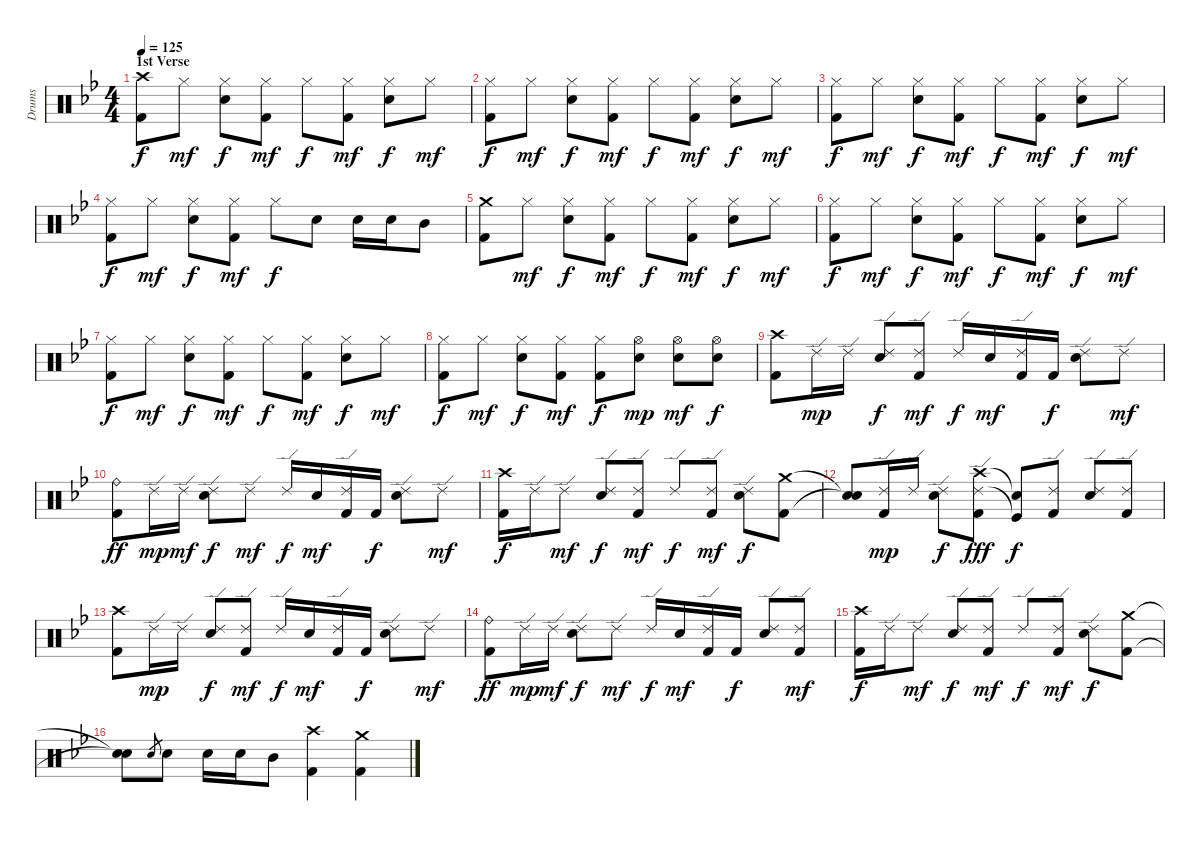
\track ("Drums" "Drums") {instrument percussion}
\staff {score}
\articulation defaults
\ts (4 4)
\section ("" "1st Verse")
\tempo 125
\clef neutral
\ks gminor
("Crash high (hit)" "Kick (hit) 2").8{dy f} "Hi-Hat (closed)".8{dy mf} ("Hi-Hat (closed)" "Snare (hit) 2").8{dy f} ("Hi-Hat (closed)" "Kick (hit) 2").8{dy mf} "Hi-Hat (closed)".8{dy f} ("Hi-Hat (closed)" "Kick (hit) 2").8{dy mf} ("Hi-Hat (closed)" "Snare (hit) 2").8{dy f} "Hi-Hat (closed)".8{dy mf} |
("Hi-Hat (closed)" "Kick (hit) 2").8{dy f} "Hi-Hat (closed)".8{dy mf} ("Hi-Hat (closed)" "Snare (hit) 2").8{dy f} ("Hi-Hat (closed)" "Kick (hit) 2").8{dy mf} "Hi-Hat (closed)".8{dy f} ("Hi-Hat (closed)" "Kick (hit) 2").8{dy mf} ("Hi-Hat (closed)" "Snare (hit) 2").8{dy f} "Hi-Hat (closed)".8{dy mf} |
("Hi-Hat (closed)" "Kick (hit) 2").8{dy f} "Hi-Hat (closed)".8{dy mf} ("Hi-Hat (closed)" "Snare (hit) 2").8{dy f} ("Hi-Hat (closed)" "Kick (hit) 2").8{dy mf} "Hi-Hat (closed)".8{dy f} ("Hi-Hat (closed)" "Kick (hit) 2").8{dy mf} ("Hi-Hat (closed)" "Snare (hit) 2").8{dy f} "Hi-Hat (closed)".8{dy mf} |
("Hi-Hat (closed)" "Kick (hit) 2").8{dy f} "Hi-Hat (closed)".8{dy mf} ("Hi-Hat (closed)" "Snare (hit) 2").8{dy f} ("Hi-Hat (closed)" "Kick (hit) 2").8{dy mf} "Hi-Hat (closed)".8{dy f} "Snare (hit) 2".8 "Snare (hit) 2".16 "Snare (hit) 2".16 "Mid Tom (hit)".8 |
("Crash medium (hit)" "Kick (hit) 2").8 "Hi-Hat (closed)".8{dy mf} ("Hi-Hat (closed)" "Snare (hit) 2").8{dy f} ("Hi-Hat (closed)" "Kick (hit) 2").8{dy mf} "Hi-Hat (closed)".8{dy f} ("Hi-Hat (closed)" "Kick (hit) 2").8{dy mf} ("Hi-Hat (closed)" "Snare (hit) 2").8{dy f} "Hi-Hat (closed)".8{dy mf} |
("Hi-Hat (closed)" "Kick (hit) 2").8{dy f} "Hi-Hat (closed)".8{dy mf} ("Hi-Hat (closed)" "Snare (hit) 2").8{dy f} ("Hi-Hat (closed)" "Kick (hit) 2").8{dy mf} "Hi-Hat (closed)".8{dy f} ("Hi-Hat (closed)" "Kick (hit) 2").8{dy mf} ("Hi-Hat (closed)" "Snare (hit) 2").8{dy f} "Hi-Hat (closed)".8{dy mf} |
("Hi-Hat (closed)" "Kick (hit) 2").8{dy f} "Hi-Hat (closed)".8{dy mf} ("Hi-Hat (closed)" "Snare (hit) 2").8{dy f} ("Hi-Hat (closed)" "Kick (hit) 2").8{dy mf} "Hi-Hat (closed)".8{dy f} ("Hi-Hat (closed)" "Kick (hit) 2").8{dy mf} ("Hi-Hat (closed)" "Snare (hit) 2").8{dy f} "Hi-Hat (closed)".8{dy mf} |
("Hi-Hat (closed)" "Kick (hit) 2").8{dy f} "Hi-Hat (closed)".8{dy mf} ("Hi-Hat (closed)" "Snare (hit) 2").8{dy f} ("Hi-Hat (closed)" "Kick (hit) 2").8{dy mf} ("Hi-Hat (closed)" "Kick (hit) 2").8{dy f} ("Hi-Hat (open)" "Snare (hit) 2").8{dy mp} ("Hi-Hat (open)" "Snare (hit) 2").8{dy mf} ("Hi-Hat (open)" "Snare (hit) 2").8{dy f} |
("Crash high (hit)" "Kick (hit) 2").8 "Ride (edge) 2".16{dy mp} "Ride (edge) 2".16 ("Ride (edge) 2" "Snare (hit) 2").8{dy f} ("Ride (edge) 2" "Kick (hit) 2").8{dy mf} "Ride (edge) 2".16{dy f} "Snare (hit) 2".16{dy mf} ("Ride (edge) 2" "Kick (hit) 2").16 "Kick (hit) 2".16{dy f} ("Ride (edge) 2" "Snare (hit) 2").8 "Ride (edge) 2".8{dy mf} |
("Ride (bell)" "Kick (hit) 2").8{dy ff} "Ride (edge) 2".16{dy mp} "Ride (edge) 2".16{dy mf} ("Ride (edge) 2" "Snare (hit) 2").8{dy f} "Ride (edge) 2".8{dy mf} "Ride (edge) 2".16{dy f} "Snare (hit) 2".16{dy mf} ("Ride (edge) 2" "Kick (hit) 2").16 "Kick (hit) 2".16{dy f} ("Ride (edge) 2" "Snare (hit) 2").8 "Ride (edge) 2".8{dy mf} |
("Crash high (hit)" "Kick (hit) 2").16{dy f} "Ride (edge) 2".16 "Ride (edge) 2".8{dy mf} ("Ride (edge) 2" "Snare (hit) 2").8{dy f} ("Ride (edge) 2" "Kick (hit) 2").8{dy mf} "Ride (edge) 2".8{dy f} ("Ride (edge) 2" "Kick (hit) 2").8{dy mf} ("Ride (edge) 2" "Snare (hit) 2").8{dy f} ("Crash medium (hit)" "Kick (hit) 2").8 |
("Snare (hit)"{t} "Snare (hit)"{t}).8 ("Ride (edge) 2" "Kick (hit) 2").16{dy mp} "Ride (edge) 2".16 ("Ride (edge) 2" "Snare (hit) 2").8{dy f} ("Crash high (hit)" "Ride (edge) 2" "Kick (hit) 2").8{dy fff} ("Snare (hit)"{t} "Kick (hit)"{t}).8{dy f} ("Ride (edge) 2" "Kick (hit) 2").8 ("Ride (edge) 2" "Snare (hit) 2").8 ("Ride (edge) 2" "Kick (hit) 2").8 |
("Crash high (hit)" "Kick (hit) 2").8 "Ride (edge) 2".16{dy mp} "Ride (edge) 2".16 ("Ride (edge) 2" "Snare (hit) 2").8{dy f} ("Ride (edge) 2" "Kick (hit) 2").8{dy mf} "Ride (edge) 2".16{dy f} "Snare (hit) 2".16{dy mf} ("Ride (edge) 2" "Kick (hit) 2").16 "Kick (hit) 2".16{dy f} ("Ride (edge) 2" "Snare (hit) 2").8 "Ride (edge) 2".8{dy mf} |
("Ride (bell)" "Kick (hit) 2").8{dy ff} "Ride (edge) 2".16{dy mp} "Ride (edge) 2".16{dy mf} ("Ride (edge) 2" "Snare (hit) 2").8{dy f} "Ride (edge) 2".8{dy mf} "Ride (edge) 2".16{dy f} "Snare (hit) 2".16{dy mf} ("Ride (edge) 2" "Kick (hit) 2").16 "Kick (hit) 2".16{dy f} ("Ride (edge) 2" "Snare (hit) 2").8 ("Ride (edge) 2" "Kick (hit) 2").8{dy mf} |
("Crash high (hit)" "Kick (hit) 2").16{dy f} "Ride (edge) 2".16 "Ride (edge) 2".8{dy mf} ("Ride (edge) 2" "Snare (hit) 2").8{dy f} ("Ride (edge) 2" "Kick (hit) 2").8{dy mf} "Ride (edge) 2".8{dy f} ("Ride (edge) 2" "Kick (hit) 2").8{dy mf} ("Ride (edge) 2" "Snare (hit) 2").8{dy f} ("Crash medium (hit)" "Kick (hit) 2").8 |
("Snare (hit)"{t} "Snare (hit)"{t}).8 "Snare (hit) 2".8{gr} "Snare (hit) 2".8 "Snare (hit) 2".16 "Snare (hit) 2".16 "Mid Tom (hit)".8 ("Crash high (hit)" "Kick (hit) 2").4 ("Crash medium (hit)" "Kick (hit) 2").4
